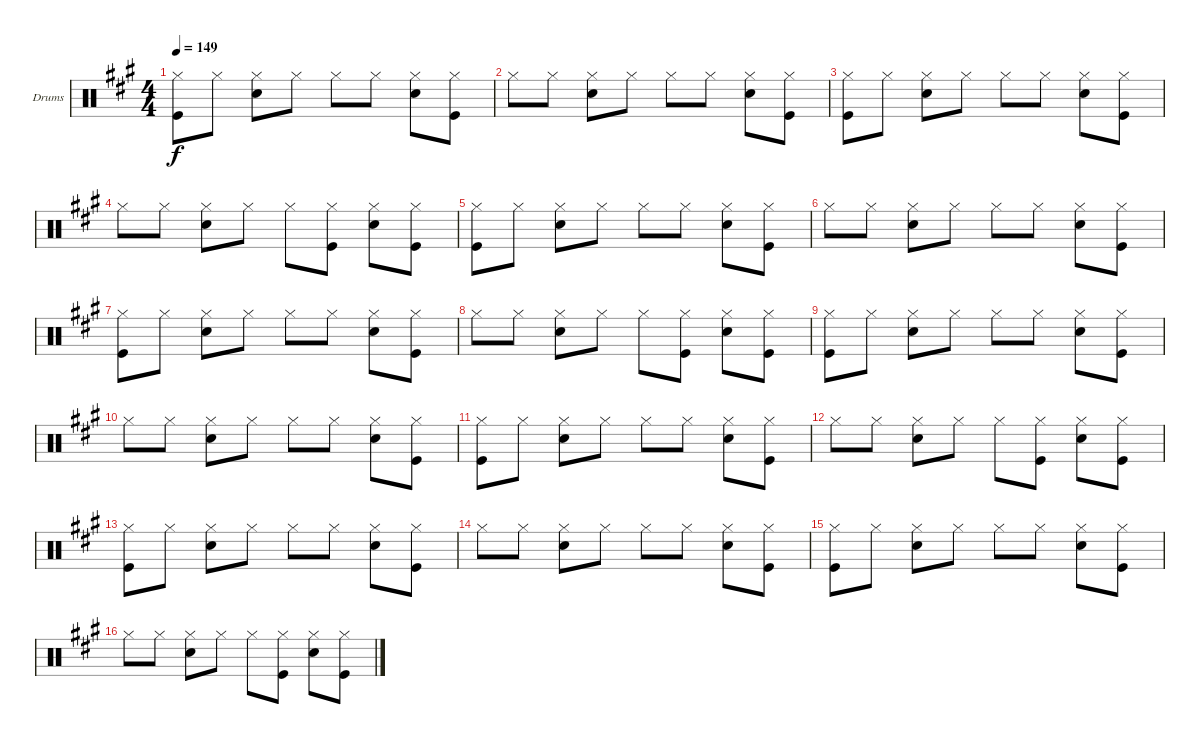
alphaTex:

\defaultSystemsLayout 4
\bracketExtendMode groupsimilarinstruments
\firstSystemTrackNameOrientation horizontal
\otherSystemsTrackNameOrientation horizontal
\track ("Drums" "Drums") {instrument percussion}
\staff {score}
\articulation defaults
\ts (4 4)
\tempo 149
\clef neutral
\ks a
("Kick (hit)" "Hi-Hat (closed)").8{dy f} "Hi-Hat (closed)".8 ("Hi-Hat (closed)" "Snare (hit) 2").8 "Hi-Hat (closed)".8 "Hi-Hat (closed)".8 "Hi-Hat (closed)".8 ("Hi-Hat (closed)" "Snare (hit) 2").8 ("Hi-Hat (closed)" "Kick (hit)").8 |
"Hi-Hat (closed)".8 "Hi-Hat (closed)".8 ("Hi-Hat (closed)" "Snare (hit) 2").8 "Hi-Hat (closed)".8 "Hi-Hat (closed)".8 "Hi-Hat (closed)".8 ("Hi-Hat (closed)" "Snare (hit) 2").8 ("Hi-Hat (closed)" "Kick (hit)").8 |
("Kick (hit)" "Hi-Hat (closed)").8 "Hi-Hat (closed)".8 ("Hi-Hat (closed)" "Snare (hit) 2").8 "Hi-Hat (closed)".8 "Hi-Hat (closed)".8 "Hi-Hat (closed)".8 ("Hi-Hat (closed)" "Snare (hit) 2").8 ("Hi-Hat (closed)" "Kick (hit)").8 |
"Hi-Hat (closed)".8 "Hi-Hat (closed)".8 ("Hi-Hat (closed)" "Snare (hit) 2").8 "Hi-Hat (closed)".8 "Hi-Hat (closed)".8 ("Hi-Hat (closed)" "Kick (hit)").8 ("Hi-Hat (closed)" "Snare (hit) 2").8 ("Hi-Hat (closed)" "Kick (hit)").8 |
("Kick (hit)" "Hi-Hat (closed)").8 "Hi-Hat (closed)".8 ("Hi-Hat (closed)" "Snare (hit) 2").8 "Hi-Hat (closed)".8 "Hi-Hat (closed)".8 "Hi-Hat (closed)".8 ("Hi-Hat (closed)" "Snare (hit) 2").8 ("Hi-Hat (closed)" "Kick (hit)").8 |
"Hi-Hat (closed)".8 "Hi-Hat (closed)".8 ("Hi-Hat (closed)" "Snare (hit) 2").8 "Hi-Hat (closed)".8 "Hi-Hat (closed)".8 "Hi-Hat (closed)".8 ("Hi-Hat (closed)" "Snare (hit) 2").8 ("Hi-Hat (closed)" "Kick (hit)").8 |
("Kick (hit)" "Hi-Hat (closed)").8 "Hi-Hat (closed)".8 ("Hi-Hat (closed)" "Snare (hit) 2").8 "Hi-Hat (closed)".8 "Hi-Hat (closed)".8 "Hi-Hat (closed)".8 ("Hi-Hat (closed)" "Snare (hit) 2").8 ("Hi-Hat (closed)" "Kick (hit)").8 |
"Hi-Hat (closed)".8 "Hi-Hat (closed)".8 ("Hi-Hat (closed)" "Snare (hit) 2").8 "Hi-Hat (closed)".8 "Hi-Hat (closed)".8 ("Hi-Hat (closed)" "Kick (hit)").8 ("Hi-Hat (closed)" "Snare (hit) 2").8 ("Hi-Hat (closed)" "Kick (hit)").8 |
("Kick (hit)" "Hi-Hat (closed)").8 "Hi-Hat (closed)".8 ("Hi-Hat (closed)" "Snare (hit) 2").8 "Hi-Hat (closed)".8 "Hi-Hat (closed)".8 "Hi-Hat (closed)".8 ("Hi-Hat (closed)" "Snare (hit) 2").8 ("Hi-Hat (closed)" "Kick (hit)").8 |
"Hi-Hat (closed)".8 "Hi-Hat (closed)".8 ("Hi-Hat (closed)" "Snare (hit) 2").8 "Hi-Hat (closed)".8 "Hi-Hat (closed)".8 "Hi-Hat (closed)".8 ("Hi-Hat (closed)" "Snare (hit) 2").8 ("Hi-Hat (closed)" "Kick (hit)").8 |
("Kick (hit)" "Hi-Hat (closed)").8 "Hi-Hat (closed)".8 ("Hi-Hat (closed)" "Snare (hit) 2").8 "Hi-Hat (closed)".8 "Hi-Hat (closed)".8 "Hi-Hat (closed)".8 ("Hi-Hat (closed)" "Snare (hit) 2").8 ("Hi-Hat (closed)" "Kick (hit)").8 |
"Hi-Hat (closed)".8 "Hi-Hat (closed)".8 ("Hi-Hat (closed)" "Snare (hit) 2").8 "Hi-Hat (closed)".8 "Hi-Hat (closed)".8 ("Hi-Hat (closed)" "Kick (hit)").8 ("Hi-Hat (closed)" "Snare (hit) 2").8 ("Hi-Hat (closed)" "Kick (hit)").8 |
("Kick (hit)" "Hi-Hat (closed)").8 "Hi-Hat (closed)".8 ("Hi-Hat (closed)" "Snare (hit) 2").8 "Hi-Hat (closed)".8 "Hi-Hat (closed)".8 "Hi-Hat (closed)".8 ("Hi-Hat (closed)" "Snare (hit) 2").8 ("Hi-Hat (closed)" "Kick (hit)").8 |
"Hi-Hat (closed)".8 "Hi-Hat (closed)".8 ("Hi-Hat (closed)" "Snare (hit) 2").8 "Hi-Hat (closed)".8 "Hi-Hat (closed)".8 "Hi-Hat (closed)".8 ("Hi-Hat (closed)" "Snare (hit) 2").8 ("Hi-Hat (closed)" "Kick (hit)").8 |
("Kick (hit)" "Hi-Hat (closed)").8 "Hi-Hat (closed)".8 ("Hi-Hat (closed)" "Snare (hit) 2").8 "Hi-Hat (closed)".8 "Hi-Hat (closed)".8 "Hi-Hat (closed)".8 ("Hi-Hat (closed)" "Snare (hit) 2").8 ("Hi-Hat (closed)" "Kick (hit)").8 |
"Hi-Hat (closed)".8 "Hi-Hat (closed)".8 ("Hi-Hat (closed)" "Snare (hit) 2").8 "Hi-Hat (closed)".8 "Hi-Hat (closed)".8 ("Hi-Hat (closed)" "Kick (hit)").8 ("Hi-Hat (closed)" "Snare (hit) 2").8 ("Hi-Hat (closed)" "Kick (hit)").8
